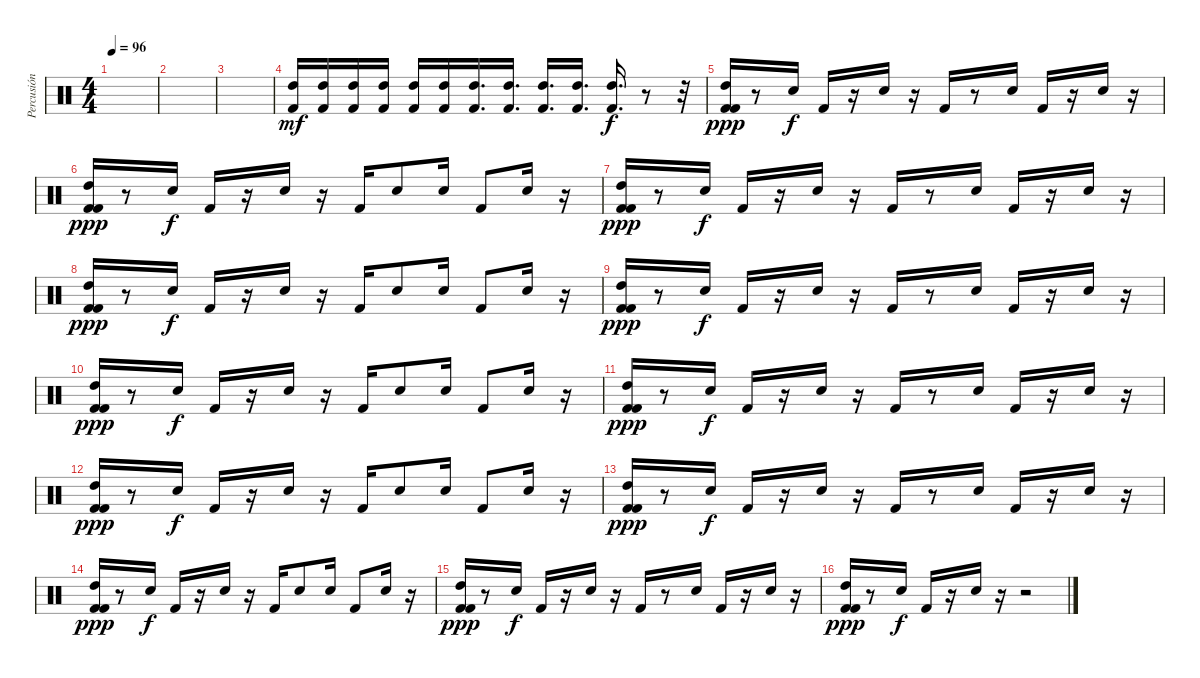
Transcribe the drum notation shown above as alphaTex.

\track ("Percusión" "Percusión") {instrument percussion}
\staff {score}
\articulation defaults
\ts (4 4)
\tempo 96
\clef neutral
\ks c
|
|
|
("High Tom (hit)" "Kick (hit) 2").16{dy mf} ("High Tom (hit)" "Kick (hit) 2").16 ("High Tom (hit)" "Kick (hit) 2").16 ("High Tom (hit)" "Kick (hit) 2").16 ("High Tom (hit)" "Kick (hit) 2").16 ("High Tom (hit)" "Kick (hit) 2").16 ("High Tom (hit)" "Kick (hit) 2").16{d} ("High Tom (hit)" "Kick (hit) 2").16{d} ("High Tom (hit)" "Kick (hit) 2").16{d} ("High Tom (hit)" "Kick (hit) 2").16{d} ("High Tom (hit)" "Kick (hit) 2").16{d dy f} r.8 r.32 |
("Kick (hit) 2" "High Tom (hit)" "Kick (hit) 2").16{dy ppp} r.8 "Snare (hit) 2".16{dy f} "Kick (hit) 2".16 r.16 "Snare (hit) 2".16 r.16 "Kick (hit) 2".16 r.8 "Snare (hit) 2".16 "Kick (hit) 2".16 r.16 "Snare (hit) 2".16 r.16 |
("Kick (hit) 2" "High Tom (hit)" "Kick (hit) 2").16{dy ppp} r.8 "Snare (hit) 2".16{dy f} "Kick (hit) 2".16 r.16 "Snare (hit) 2".16 r.16 "Kick (hit) 2".16 "Snare (hit) 2".8 "Snare (hit) 2".16 "Kick (hit) 2".8 "Snare (hit) 2".16 r.16 |
("Kick (hit) 2" "High Tom (hit)" "Kick (hit) 2").16{dy ppp} r.8 "Snare (hit) 2".16{dy f} "Kick (hit) 2".16 r.16 "Snare (hit) 2".16 r.16 "Kick (hit) 2".16 r.8 "Snare (hit) 2".16 "Kick (hit) 2".16 r.16 "Snare (hit) 2".16 r.16 |
("Kick (hit) 2" "High Tom (hit)" "Kick (hit) 2").16{dy ppp} r.8 "Snare (hit) 2".16{dy f} "Kick (hit) 2".16 r.16 "Snare (hit) 2".16 r.16 "Kick (hit) 2".16 "Snare (hit) 2".8 "Snare (hit) 2".16 "Kick (hit) 2".8 "Snare (hit) 2".16 r.16 |
("Kick (hit) 2" "High Tom (hit)" "Kick (hit) 2").16{dy ppp} r.8 "Snare (hit) 2".16{dy f} "Kick (hit) 2".16 r.16 "Snare (hit) 2".16 r.16 "Kick (hit) 2".16 r.8 "Snare (hit) 2".16 "Kick (hit) 2".16 r.16 "Snare (hit) 2".16 r.16 |
("Kick (hit) 2" "High Tom (hit)" "Kick (hit) 2").16{dy ppp} r.8 "Snare (hit) 2".16{dy f} "Kick (hit) 2".16 r.16 "Snare (hit) 2".16 r.16 "Kick (hit) 2".16 "Snare (hit) 2".8 "Snare (hit) 2".16 "Kick (hit) 2".8 "Snare (hit) 2".16 r.16 |
("Kick (hit) 2" "High Tom (hit)" "Kick (hit) 2").16{dy ppp} r.8 "Snare (hit) 2".16{dy f} "Kick (hit) 2".16 r.16 "Snare (hit) 2".16 r.16 "Kick (hit) 2".16 r.8 "Snare (hit) 2".16 "Kick (hit) 2".16 r.16 "Snare (hit) 2".16 r.16 |
("Kick (hit) 2" "High Tom (hit)" "Kick (hit) 2").16{dy ppp} r.8 "Snare (hit) 2".16{dy f} "Kick (hit) 2".16 r.16 "Snare (hit) 2".16 r.16 "Kick (hit) 2".16 "Snare (hit) 2".8 "Snare (hit) 2".16 "Kick (hit) 2".8 "Snare (hit) 2".16 r.16 |
("Kick (hit) 2" "High Tom (hit)" "Kick (hit) 2").16{dy ppp} r.8 "Snare (hit) 2".16{dy f} "Kick (hit) 2".16 r.16 "Snare (hit) 2".16 r.16 "Kick (hit) 2".16 r.8 "Snare (hit) 2".16 "Kick (hit) 2".16 r.16 "Snare (hit) 2".16 r.16 |
("Kick (hit) 2" "High Tom (hit)" "Kick (hit) 2").16{dy ppp} r.8 "Snare (hit) 2".16{dy f} "Kick (hit) 2".16 r.16 "Snare (hit) 2".16 r.16 "Kick (hit) 2".16 "Snare (hit) 2".8 "Snare (hit) 2".16 "Kick (hit) 2".8 "Snare (hit) 2".16 r.16 |
("Kick (hit) 2" "High Tom (hit)" "Kick (hit) 2").16{dy ppp} r.8 "Snare (hit) 2".16{dy f} "Kick (hit) 2".16 r.16 "Snare (hit) 2".16 r.16 "Kick (hit) 2".16 r.8 "Snare (hit) 2".16 "Kick (hit) 2".16 r.16 "Snare (hit) 2".16 r.16 |
("Kick (hit) 2" "High Tom (hit)" "Kick (hit) 2").16{dy ppp} r.8 "Snare (hit) 2".16{dy f} "Kick (hit) 2".16 r.16 "Snare (hit) 2".16 r.16 r.2
